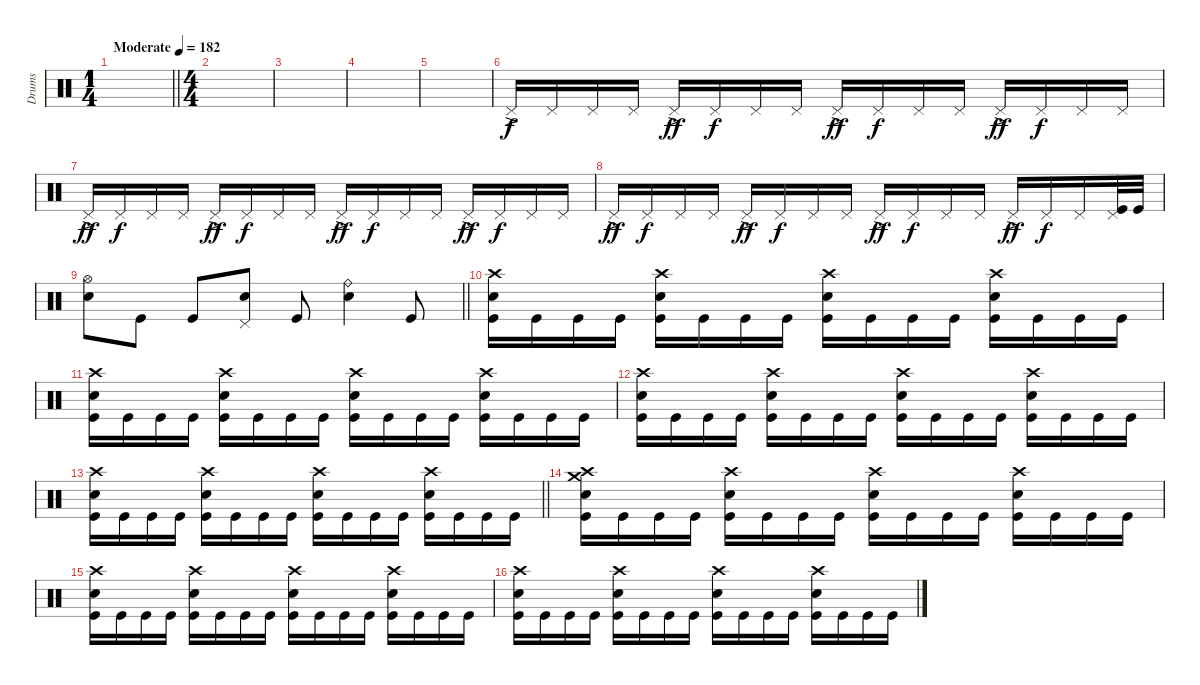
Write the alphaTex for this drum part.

\track ("Drums" "Drums") {instrument percussion}
\staff
\articulation defaults
\ts (1 4)
\tempo (182 "Moderate")
\clef neutral
\barLineRight lightlight
\ks c
|
\ts (4 4)
|
|
|
|
"Pedal Hi-Hat (hit)"{ac}.16 "Pedal Hi-Hat (hit)".16{dy f} "Pedal Hi-Hat (hit)".16 "Pedal Hi-Hat (hit)".16 "Pedal Hi-Hat (hit)"{ac}.16{dy ff} "Pedal Hi-Hat (hit)".16{dy f} "Pedal Hi-Hat (hit)".16 "Pedal Hi-Hat (hit)".16 "Pedal Hi-Hat (hit)"{ac}.16{dy ff} "Pedal Hi-Hat (hit)".16{dy f} "Pedal Hi-Hat (hit)".16 "Pedal Hi-Hat (hit)".16 "Pedal Hi-Hat (hit)"{ac}.16{dy ff} "Pedal Hi-Hat (hit)".16{dy f} "Pedal Hi-Hat (hit)".16 "Pedal Hi-Hat (hit)".16 |
"Pedal Hi-Hat (hit)"{ac}.16{dy ff} "Pedal Hi-Hat (hit)".16{dy f} "Pedal Hi-Hat (hit)".16 "Pedal Hi-Hat (hit)".16 "Pedal Hi-Hat (hit)"{ac}.16{dy ff} "Pedal Hi-Hat (hit)".16{dy f} "Pedal Hi-Hat (hit)".16 "Pedal Hi-Hat (hit)".16 "Pedal Hi-Hat (hit)"{ac}.16{dy ff} "Pedal Hi-Hat (hit)".16{dy f} "Pedal Hi-Hat (hit)".16 "Pedal Hi-Hat (hit)".16 "Pedal Hi-Hat (hit)"{ac}.16{dy ff} "Pedal Hi-Hat (hit)".16{dy f} "Pedal Hi-Hat (hit)".16 "Pedal Hi-Hat (hit)".16 |
"Pedal Hi-Hat (hit)"{ac}.16{dy ff} "Pedal Hi-Hat (hit)".16{dy f} "Pedal Hi-Hat (hit)".16 "Pedal Hi-Hat (hit)".16 "Pedal Hi-Hat (hit)"{ac}.16{dy ff} "Pedal Hi-Hat (hit)".16{dy f} "Pedal Hi-Hat (hit)".16 "Pedal Hi-Hat (hit)".16 "Pedal Hi-Hat (hit)"{ac}.16{dy ff} "Pedal Hi-Hat (hit)".16{dy f} "Pedal Hi-Hat (hit)".16 "Pedal Hi-Hat (hit)".16 "Pedal Hi-Hat (hit)"{ac}.16{dy ff} "Pedal Hi-Hat (hit)".16{dy f} "Pedal Hi-Hat (hit)".16 ("Pedal Hi-Hat (hit)" "Kick (hit)").32 "Kick (hit)".32 |
\barLineRight lightlight
("Hi-Hat (open)" "Electric Snare (hit)").8 "Kick (hit)".8 "Kick (hit)".8 ("Pedal Hi-Hat (hit)" "Electric Snare (hit)").8 "Kick (hit)".8 ("Ride (bell)" "Electric Snare (hit)").4 "Kick (hit)".8 |
\section ("" "")
("Crash high (hit)" "Electric Snare (hit)" "Kick (hit)").16 "Kick (hit)".16 "Kick (hit)".16 "Kick (hit)".16 ("Crash high (hit)" "Electric Snare (hit)" "Kick (hit)").16 "Kick (hit)".16 "Kick (hit)".16 "Kick (hit)".16 ("Crash high (hit)" "Electric Snare (hit)" "Kick (hit)").16 "Kick (hit)".16 "Kick (hit)".16 "Kick (hit)".16 ("Crash high (hit)" "Electric Snare (hit)" "Kick (hit)").16 "Kick (hit)".16 "Kick (hit)".16 "Kick (hit)".16 |
("Crash high (hit)" "Electric Snare (hit)" "Kick (hit)").16 "Kick (hit)".16 "Kick (hit)".16 "Kick (hit)".16 ("Crash high (hit)" "Electric Snare (hit)" "Kick (hit)").16 "Kick (hit)".16 "Kick (hit)".16 "Kick (hit)".16 ("Crash high (hit)" "Electric Snare (hit)" "Kick (hit)").16 "Kick (hit)".16 "Kick (hit)".16 "Kick (hit)".16 ("Crash high (hit)" "Electric Snare (hit)" "Kick (hit)").16 "Kick (hit)".16 "Kick (hit)".16 "Kick (hit)".16 |
("Crash high (hit)" "Electric Snare (hit)" "Kick (hit)").16 "Kick (hit)".16 "Kick (hit)".16 "Kick (hit)".16 ("Crash high (hit)" "Electric Snare (hit)" "Kick (hit)").16 "Kick (hit)".16 "Kick (hit)".16 "Kick (hit)".16 ("Crash high (hit)" "Electric Snare (hit)" "Kick (hit)").16 "Kick (hit)".16 "Kick (hit)".16 "Kick (hit)".16 ("Crash high (hit)" "Electric Snare (hit)" "Kick (hit)").16 "Kick (hit)".16 "Kick (hit)".16 "Kick (hit)".16 |
\barLineRight lightlight
("Crash high (hit)" "Electric Snare (hit)" "Kick (hit)").16 "Kick (hit)".16 "Kick (hit)".16 "Kick (hit)".16 ("Crash high (hit)" "Electric Snare (hit)" "Kick (hit)").16 "Kick (hit)".16 "Kick (hit)".16 "Kick (hit)".16 ("Crash high (hit)" "Electric Snare (hit)" "Kick (hit)").16 "Kick (hit)".16 "Kick (hit)".16 "Kick (hit)".16 ("Crash high (hit)" "Electric Snare (hit)" "Kick (hit)").16 "Kick (hit)".16 "Kick (hit)".16 "Kick (hit)".16 |
("Crash high (hit)" "Crash medium (hit)" "Electric Snare (hit)" "Kick (hit)").16 "Kick (hit)".16 "Kick (hit)".16 "Kick (hit)".16 ("Crash high (hit)" "Electric Snare (hit)" "Kick (hit)").16 "Kick (hit)".16 "Kick (hit)".16 "Kick (hit)".16 ("Crash high (hit)" "Electric Snare (hit)" "Kick (hit)").16 "Kick (hit)".16 "Kick (hit)".16 "Kick (hit)".16 ("Crash high (hit)" "Electric Snare (hit)" "Kick (hit)").16 "Kick (hit)".16 "Kick (hit)".16 "Kick (hit)".16 |
("Crash high (hit)" "Electric Snare (hit)" "Kick (hit)").16 "Kick (hit)".16 "Kick (hit)".16 "Kick (hit)".16 ("Crash high (hit)" "Electric Snare (hit)" "Kick (hit)").16 "Kick (hit)".16 "Kick (hit)".16 "Kick (hit)".16 ("Crash high (hit)" "Electric Snare (hit)" "Kick (hit)").16 "Kick (hit)".16 "Kick (hit)".16 "Kick (hit)".16 ("Crash high (hit)" "Electric Snare (hit)" "Kick (hit)").16 "Kick (hit)".16 "Kick (hit)".16 "Kick (hit)".16 |
("Crash high (hit)" "Electric Snare (hit)" "Kick (hit)").16 "Kick (hit)".16 "Kick (hit)".16 "Kick (hit)".16 ("Crash high (hit)" "Electric Snare (hit)" "Kick (hit)").16 "Kick (hit)".16 "Kick (hit)".16 "Kick (hit)".16 ("Crash high (hit)" "Electric Snare (hit)" "Kick (hit)").16 "Kick (hit)".16 "Kick (hit)".16 "Kick (hit)".16 ("Crash high (hit)" "Electric Snare (hit)" "Kick (hit)").16 "Kick (hit)".16 "Kick (hit)".16 "Kick (hit)".16
